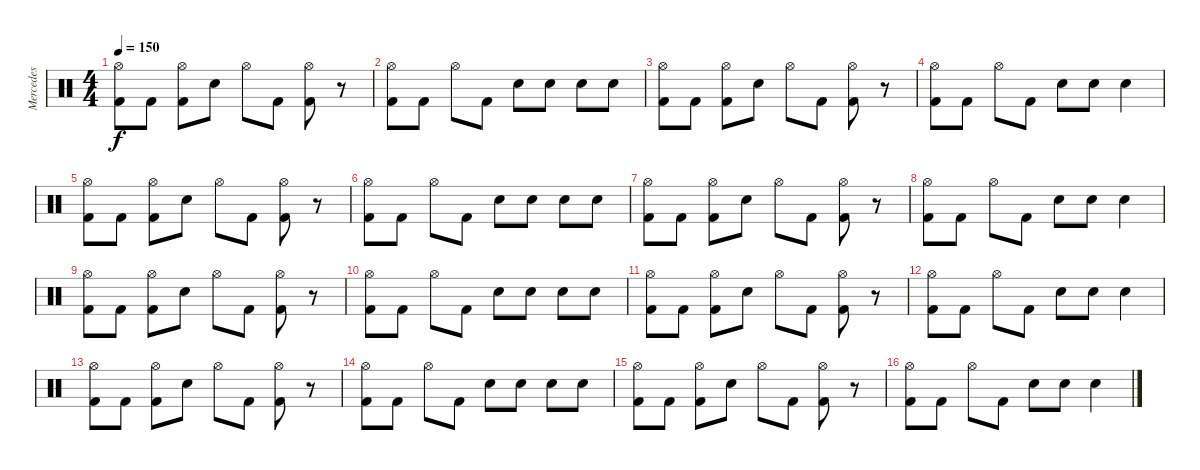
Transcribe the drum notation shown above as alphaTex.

\track ("Mercedes" "Mercedes") {instrument percussion}
\staff {score}
\articulation defaults
\ts (4 4)
\tempo 150
\clef neutral
\ks c
("Kick (hit) 2" "Hi-Hat (open)").8{dy f} "Kick (hit) 2".8 ("Kick (hit) 2" "Hi-Hat (open)").8 "Snare (hit) 2".8 "Hi-Hat (open)".8 "Kick (hit) 2".8 ("Kick (hit) 2" "Hi-Hat (open)").8 r.8 |
("Kick (hit) 2" "Hi-Hat (open)").8 "Kick (hit) 2".8 "Hi-Hat (open)".8 "Kick (hit) 2".8 "Snare (hit) 2".8 "Snare (hit) 2".8 "Snare (hit) 2".8 "Snare (hit) 2".8 |
("Kick (hit) 2" "Hi-Hat (open)").8 "Kick (hit) 2".8 ("Kick (hit) 2" "Hi-Hat (open)").8 "Snare (hit) 2".8 "Hi-Hat (open)".8 "Kick (hit) 2".8 ("Kick (hit) 2" "Hi-Hat (open)").8 r.8 |
("Kick (hit) 2" "Hi-Hat (open)").8 "Kick (hit) 2".8 "Hi-Hat (open)".8 "Kick (hit) 2".8 "Snare (hit) 2".8 "Snare (hit) 2".8 "Snare (hit) 2".4 |
("Kick (hit) 2" "Hi-Hat (open)").8 "Kick (hit) 2".8 ("Kick (hit) 2" "Hi-Hat (open)").8 "Snare (hit) 2".8 "Hi-Hat (open)".8 "Kick (hit) 2".8 ("Kick (hit) 2" "Hi-Hat (open)").8 r.8 |
("Kick (hit) 2" "Hi-Hat (open)").8 "Kick (hit) 2".8 "Hi-Hat (open)".8 "Kick (hit) 2".8 "Snare (hit) 2".8 "Snare (hit) 2".8 "Snare (hit) 2".8 "Snare (hit) 2".8 |
("Kick (hit) 2" "Hi-Hat (open)").8 "Kick (hit) 2".8 ("Kick (hit) 2" "Hi-Hat (open)").8 "Snare (hit) 2".8 "Hi-Hat (open)".8 "Kick (hit) 2".8 ("Kick (hit) 2" "Hi-Hat (open)").8 r.8 |
("Kick (hit) 2" "Hi-Hat (open)").8 "Kick (hit) 2".8 "Hi-Hat (open)".8 "Kick (hit) 2".8 "Snare (hit) 2".8 "Snare (hit) 2".8 "Snare (hit) 2".4 |
("Kick (hit) 2" "Hi-Hat (open)").8 "Kick (hit) 2".8 ("Kick (hit) 2" "Hi-Hat (open)").8 "Snare (hit) 2".8 "Hi-Hat (open)".8 "Kick (hit) 2".8 ("Kick (hit) 2" "Hi-Hat (open)").8 r.8 |
("Kick (hit) 2" "Hi-Hat (open)").8 "Kick (hit) 2".8 "Hi-Hat (open)".8 "Kick (hit) 2".8 "Snare (hit) 2".8 "Snare (hit) 2".8 "Snare (hit) 2".8 "Snare (hit) 2".8 |
("Kick (hit) 2" "Hi-Hat (open)").8 "Kick (hit) 2".8 ("Kick (hit) 2" "Hi-Hat (open)").8 "Snare (hit) 2".8 "Hi-Hat (open)".8 "Kick (hit) 2".8 ("Kick (hit) 2" "Hi-Hat (open)").8 r.8 |
("Kick (hit) 2" "Hi-Hat (open)").8 "Kick (hit) 2".8 "Hi-Hat (open)".8 "Kick (hit) 2".8 "Snare (hit) 2".8 "Snare (hit) 2".8 "Snare (hit) 2".4 |
("Kick (hit) 2" "Hi-Hat (open)").8 "Kick (hit) 2".8 ("Kick (hit) 2" "Hi-Hat (open)").8 "Snare (hit) 2".8 "Hi-Hat (open)".8 "Kick (hit) 2".8 ("Kick (hit) 2" "Hi-Hat (open)").8 r.8 |
("Kick (hit) 2" "Hi-Hat (open)").8 "Kick (hit) 2".8 "Hi-Hat (open)".8 "Kick (hit) 2".8 "Snare (hit) 2".8 "Snare (hit) 2".8 "Snare (hit) 2".8 "Snare (hit) 2".8 |
("Kick (hit) 2" "Hi-Hat (open)").8 "Kick (hit) 2".8 ("Kick (hit) 2" "Hi-Hat (open)").8 "Snare (hit) 2".8 "Hi-Hat (open)".8 "Kick (hit) 2".8 ("Kick (hit) 2" "Hi-Hat (open)").8 r.8 |
("Kick (hit) 2" "Hi-Hat (open)").8 "Kick (hit) 2".8 "Hi-Hat (open)".8 "Kick (hit) 2".8 "Snare (hit) 2".8 "Snare (hit) 2".8 "Snare (hit) 2".4
